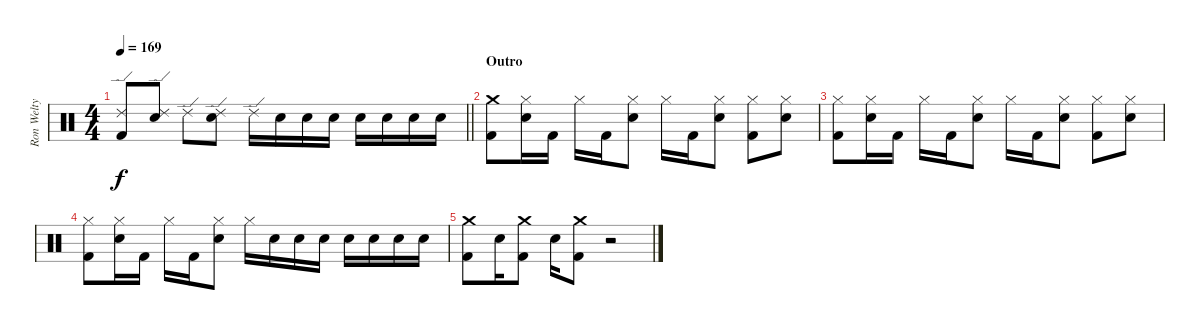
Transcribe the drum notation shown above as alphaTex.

\track ("Ron Welty - Drums" "Ron Welty ") {instrument percussion}
\staff {score}
\articulation defaults
\ts (4 4)
\tempo 169
\clef neutral
\barLineRight lightlight
\ks c
("Ride (edge) 2" "Kick (hit) 2").8{dy f} ("Ride (edge) 2" "Electric Snare (hit)").8 "Ride (edge) 2".8 ("Ride (edge) 2" "Electric Snare (hit)").8 "Ride (edge) 2".16 "Electric Snare (hit)".16 "Electric Snare (hit)".16 "Electric Snare (hit)".16 "Electric Snare (hit)".16 "Electric Snare (hit)".16 "Electric Snare (hit)".16 "Electric Snare (hit)".16 |
\section ("" "Outro")
("Crash medium (hit)" "Kick (hit) 2").8 ("Hi-Hat (closed)" "Electric Snare (hit)").16 "Kick (hit) 2".16 "Hi-Hat (closed)".16 "Kick (hit) 2".16 ("Hi-Hat (closed)" "Electric Snare (hit)").8 "Hi-Hat (closed)".16 "Kick (hit) 2".16 ("Hi-Hat (closed)" "Electric Snare (hit)").8 ("Hi-Hat (closed)" "Kick (hit) 2").8 ("Hi-Hat (closed)" "Electric Snare (hit)").8 |
("Hi-Hat (closed)" "Kick (hit) 2").8 ("Hi-Hat (closed)" "Electric Snare (hit)").16 "Kick (hit) 2".16 "Hi-Hat (closed)".16 "Kick (hit) 2".16 ("Hi-Hat (closed)" "Electric Snare (hit)").8 "Hi-Hat (closed)".16 "Kick (hit) 2".16 ("Hi-Hat (closed)" "Electric Snare (hit)").8 ("Hi-Hat (closed)" "Kick (hit) 2").8 ("Hi-Hat (closed)" "Electric Snare (hit)").8 |
("Hi-Hat (closed)" "Kick (hit) 2").8 ("Hi-Hat (closed)" "Electric Snare (hit)").16 "Kick (hit) 2".16 "Hi-Hat (closed)".16 "Kick (hit) 2".16 ("Hi-Hat (closed)" "Electric Snare (hit)").8 "Hi-Hat (closed)".16 "Electric Snare (hit)".16 "Electric Snare (hit)".16 "Electric Snare (hit)".16 "Electric Snare (hit)".16 "Electric Snare (hit)".16 "Electric Snare (hit)".16 "Electric Snare (hit)".16 |
("Crash medium (hit)" "Kick (hit) 2").8 "Electric Snare (hit)".16 ("Crash medium (hit)" "Kick (hit) 2").8 "Electric Snare (hit)".16 ("Crash medium (hit)" "Kick (hit) 2").8 r.2
